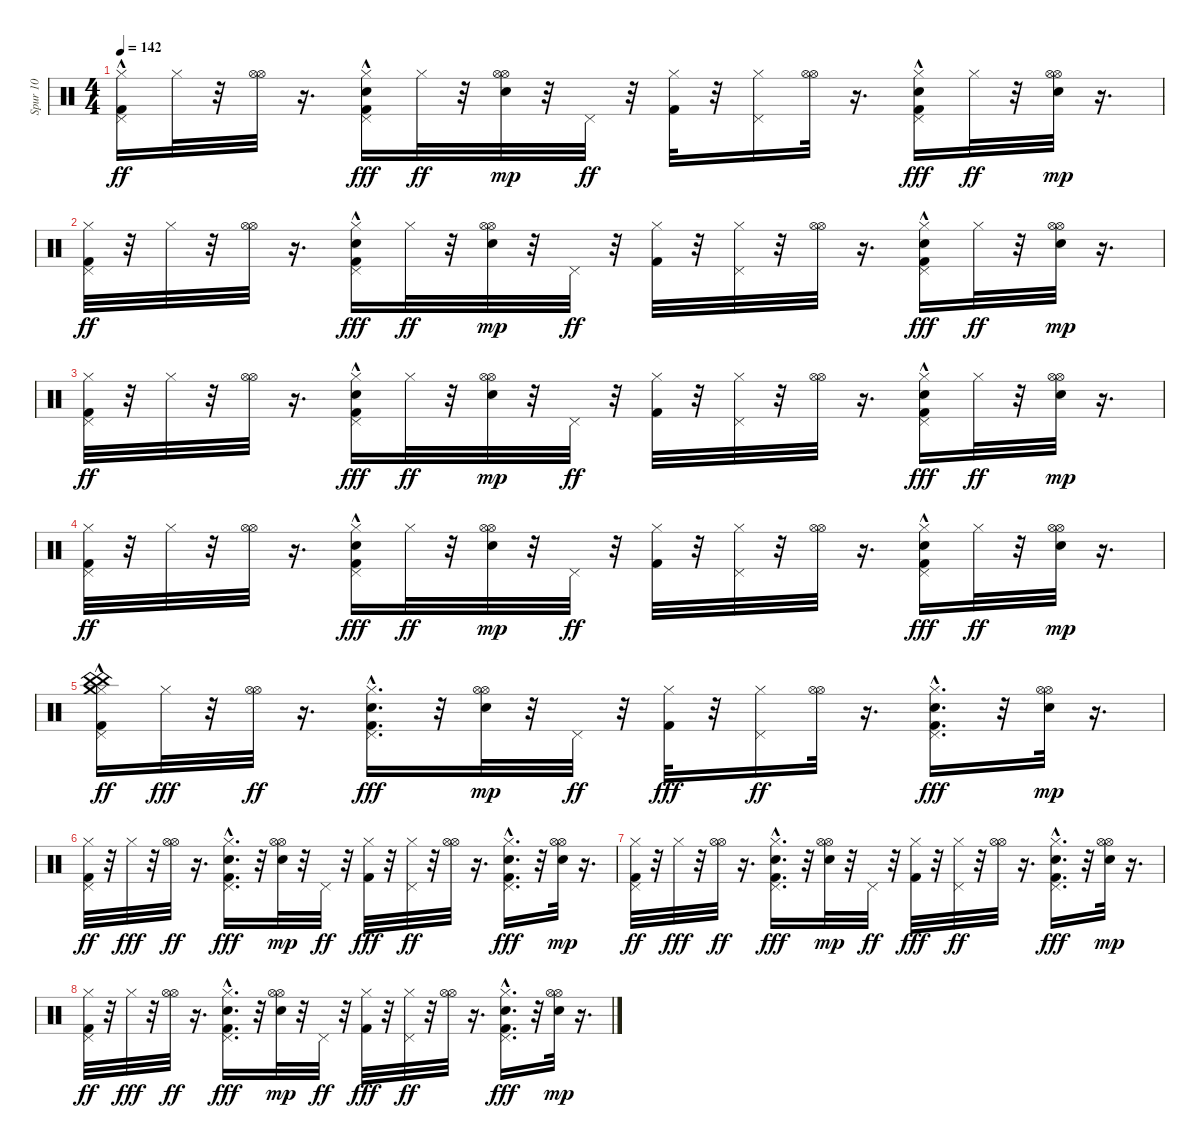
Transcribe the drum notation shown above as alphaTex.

\track ("Spur 10" "Spur 10") {instrument percussion}
\staff {score}
\articulation defaults
\ts (4 4)
\tempo 142
\clef neutral
\ks c
("Kick (hit) 2"{hac} "Hi-Hat (closed)" "Pedal Hi-Hat (hit)").16{dy ff} "Hi-Hat (closed)".32 r.32 ("Hi-Hat (open)" "Hi-Hat (open)").32 r.16{d} ("Kick (hit) 2" "Hi-Hat (closed)" "Pedal Hi-Hat (hit)" "Hand Clap (hit)"{hac}).16{dy fff balance 16} "Hi-Hat (closed)".32{dy ff} r.32 ("Hi-Hat (open)" "Hi-Hat (open)" "Hand Clap (hit)").32{dy mp balance 0} r.32 "Pedal Hi-Hat (hit)".32{dy ff} r.32 ("Kick (hit) 2" "Hi-Hat (closed)").32 r.32 ("Hi-Hat (closed)" "Pedal Hi-Hat (hit)").16 ("Hi-Hat (open)" "Hi-Hat (open)").32 r.16{d} ("Kick (hit) 2" "Hi-Hat (closed)" "Pedal Hi-Hat (hit)" "Hand Clap (hit)"{hac}).16{dy fff balance 16} "Hi-Hat (closed)".32{dy ff} r.32 ("Hi-Hat (open)" "Hi-Hat (open)" "Hand Clap (hit)").32{dy mp balance 0} r.16{d} |
("Kick (hit) 2" "Hi-Hat (closed)" "Pedal Hi-Hat (hit)").32{dy ff} r.32 "Hi-Hat (closed)".32 r.32 ("Hi-Hat (open)" "Hi-Hat (open)").32 r.16{d} ("Kick (hit) 2" "Hi-Hat (closed)" "Pedal Hi-Hat (hit)" "Hand Clap (hit)"{hac}).16{dy fff balance 16} "Hi-Hat (closed)".32{dy ff} r.32 ("Hi-Hat (open)" "Hi-Hat (open)" "Hand Clap (hit)").32{dy mp balance 0} r.32 "Pedal Hi-Hat (hit)".32{dy ff} r.32 ("Kick (hit) 2" "Hi-Hat (closed)").32 r.32 ("Hi-Hat (closed)" "Pedal Hi-Hat (hit)").32 r.32 ("Hi-Hat (open)" "Hi-Hat (open)").32 r.16{d} ("Kick (hit) 2" "Hi-Hat (closed)" "Pedal Hi-Hat (hit)" "Hand Clap (hit)"{hac}).16{dy fff balance 16} "Hi-Hat (closed)".32{dy ff} r.32 ("Hi-Hat (open)" "Hi-Hat (open)" "Hand Clap (hit)").32{dy mp balance 0} r.16{d} |
("Kick (hit) 2" "Hi-Hat (closed)" "Pedal Hi-Hat (hit)").32{dy ff} r.32 "Hi-Hat (closed)".32 r.32 ("Hi-Hat (open)" "Hi-Hat (open)").32 r.16{d} ("Kick (hit) 2" "Hi-Hat (closed)" "Pedal Hi-Hat (hit)" "Hand Clap (hit)"{hac}).16{dy fff balance 16} "Hi-Hat (closed)".32{dy ff} r.32 ("Hi-Hat (open)" "Hi-Hat (open)" "Hand Clap (hit)").32{dy mp balance 0} r.32 "Pedal Hi-Hat (hit)".32{dy ff} r.32 ("Kick (hit) 2" "Hi-Hat (closed)").32 r.32 ("Hi-Hat (closed)" "Pedal Hi-Hat (hit)").32 r.32 ("Hi-Hat (open)" "Hi-Hat (open)").32 r.16{d} ("Kick (hit) 2" "Hi-Hat (closed)" "Pedal Hi-Hat (hit)" "Hand Clap (hit)"{hac}).16{dy fff balance 16} "Hi-Hat (closed)".32{dy ff} r.32 ("Hi-Hat (open)" "Hi-Hat (open)" "Hand Clap (hit)").32{dy mp balance 0} r.16{d} |
("Kick (hit) 2" "Hi-Hat (closed)" "Pedal Hi-Hat (hit)").32{dy ff} r.32 "Hi-Hat (closed)".32 r.32 ("Hi-Hat (open)" "Hi-Hat (open)").32 r.16{d} ("Kick (hit) 2" "Hi-Hat (closed)" "Pedal Hi-Hat (hit)" "Hand Clap (hit)"{hac}).16{dy fff balance 16} "Hi-Hat (closed)".32{dy ff} r.32 ("Hi-Hat (open)" "Hi-Hat (open)" "Hand Clap (hit)").32{dy mp balance 0} r.32 "Pedal Hi-Hat (hit)".32{dy ff} r.32 ("Kick (hit) 2" "Hi-Hat (closed)").32 r.32 ("Hi-Hat (closed)" "Pedal Hi-Hat (hit)").32 r.32 ("Hi-Hat (open)" "Hi-Hat (open)").32 r.16{d} ("Kick (hit) 2" "Hi-Hat (closed)" "Pedal Hi-Hat (hit)" "Hand Clap (hit)"{hac}).16{dy fff balance 16} "Hi-Hat (closed)".32{dy ff} r.32 ("Hi-Hat (open)" "Hi-Hat (open)" "Hand Clap (hit)").32{dy mp balance 0} r.16{d} |
("Kick (hit) 2"{hac} "Hi-Hat (closed)" "Pedal Hi-Hat (hit)" "China (hit)" "Crash medium (hit)" "China (hit)").16{dy ff} "Hi-Hat (closed)".32{dy fff} r.32 ("Hi-Hat (open)" "Hi-Hat (open)").32{dy ff} r.16{d} ("Kick (hit) 2" "Hi-Hat (closed)" "Pedal Hi-Hat (hit)" "Hand Clap (hit)"{hac}).16{d dy fff balance 16} r.32 ("Hi-Hat (open)" "Hi-Hat (open)" "Hand Clap (hit)").32{dy mp balance 0} r.32 "Pedal Hi-Hat (hit)".32{dy ff} r.32 ("Kick (hit) 2" "Hi-Hat (closed)").32{dy fff} r.32 ("Hi-Hat (closed)" "Pedal Hi-Hat (hit)").16{dy ff} ("Hi-Hat (open)" "Hi-Hat (open)").32 r.16{d} ("Kick (hit) 2" "Hi-Hat (closed)" "Pedal Hi-Hat (hit)" "Hand Clap (hit)"{hac}).16{d dy fff balance 16} r.32 ("Hi-Hat (open)" "Hi-Hat (open)" "Hand Clap (hit)").32{dy mp balance 0} r.16{d} |
("Kick (hit) 2" "Hi-Hat (closed)" "Pedal Hi-Hat (hit)").32{dy ff} r.32 "Hi-Hat (closed)".32{dy fff} r.32 ("Hi-Hat (open)" "Hi-Hat (open)").32{dy ff} r.16{d} ("Kick (hit) 2" "Hi-Hat (closed)" "Pedal Hi-Hat (hit)" "Hand Clap (hit)"{hac}).16{d dy fff balance 16} r.32 ("Hi-Hat (open)" "Hi-Hat (open)" "Hand Clap (hit)").32{dy mp balance 0} r.32 "Pedal Hi-Hat (hit)".32{dy ff} r.32 ("Kick (hit) 2" "Hi-Hat (closed)").32{dy fff} r.32 ("Hi-Hat (closed)" "Pedal Hi-Hat (hit)").32{dy ff} r.32 ("Hi-Hat (open)" "Hi-Hat (open)").32 r.16{d} ("Kick (hit) 2" "Hi-Hat (closed)" "Pedal Hi-Hat (hit)" "Hand Clap (hit)"{hac}).16{d dy fff balance 16} r.32 ("Hi-Hat (open)" "Hi-Hat (open)" "Hand Clap (hit)").32{dy mp balance 0} r.16{d} |
("Kick (hit) 2" "Hi-Hat (closed)" "Pedal Hi-Hat (hit)").32{dy ff} r.32 "Hi-Hat (closed)".32{dy fff} r.32 ("Hi-Hat (open)" "Hi-Hat (open)").32{dy ff} r.16{d} ("Kick (hit) 2" "Hi-Hat (closed)" "Pedal Hi-Hat (hit)" "Hand Clap (hit)"{hac}).16{d dy fff balance 16} r.32 ("Hi-Hat (open)" "Hi-Hat (open)" "Hand Clap (hit)").32{dy mp balance 0} r.32 "Pedal Hi-Hat (hit)".32{dy ff} r.32 ("Kick (hit) 2" "Hi-Hat (closed)").32{dy fff} r.32 ("Hi-Hat (closed)" "Pedal Hi-Hat (hit)").32{dy ff} r.32 ("Hi-Hat (open)" "Hi-Hat (open)").32 r.16{d} ("Kick (hit) 2" "Hi-Hat (closed)" "Pedal Hi-Hat (hit)" "Hand Clap (hit)"{hac}).16{d dy fff balance 16} r.32 ("Hi-Hat (open)" "Hi-Hat (open)" "Hand Clap (hit)").32{dy mp balance 0} r.16{d} |
("Kick (hit) 2" "Hi-Hat (closed)" "Pedal Hi-Hat (hit)").32{dy ff} r.32 "Hi-Hat (closed)".32{dy fff} r.32 ("Hi-Hat (open)" "Hi-Hat (open)").32{dy ff} r.16{d} ("Kick (hit) 2" "Hi-Hat (closed)" "Pedal Hi-Hat (hit)" "Hand Clap (hit)"{hac}).16{d dy fff balance 16} r.32 ("Hi-Hat (open)" "Hi-Hat (open)" "Hand Clap (hit)").32{dy mp balance 0} r.32 "Pedal Hi-Hat (hit)".32{dy ff} r.32 ("Kick (hit) 2" "Hi-Hat (closed)").32{dy fff} r.32 ("Hi-Hat (closed)" "Pedal Hi-Hat (hit)").32{dy ff} r.32 ("Hi-Hat (open)" "Hi-Hat (open)").32 r.16{d} ("Kick (hit) 2" "Hi-Hat (closed)" "Pedal Hi-Hat (hit)" "Hand Clap (hit)"{hac}).16{d dy fff balance 16} r.32 ("Hi-Hat (open)" "Hi-Hat (open)" "Hand Clap (hit)").32{dy mp balance 0} r.16{d}
